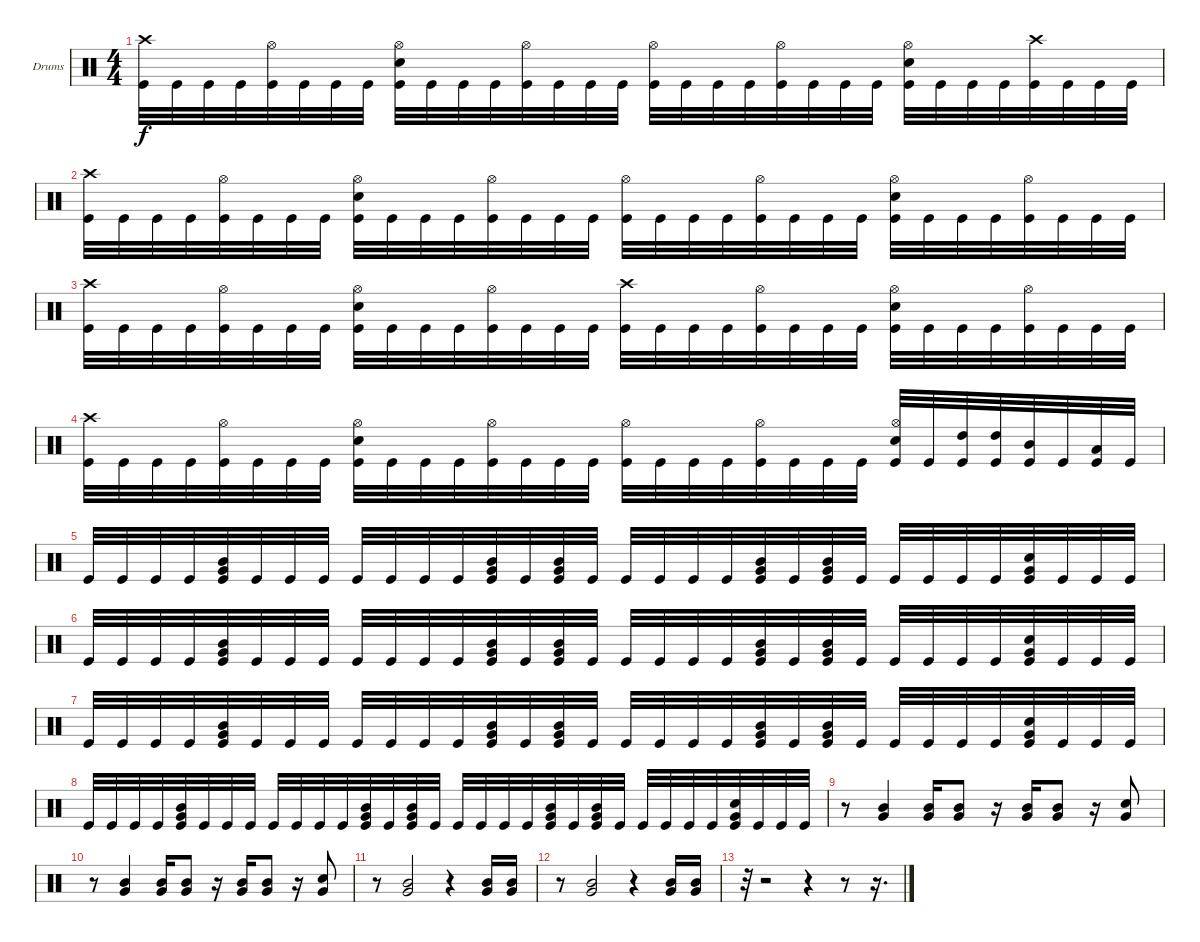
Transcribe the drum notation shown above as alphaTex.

\bracketExtendMode groupsimilarinstruments
\firstSystemTrackNameOrientation horizontal
\otherSystemsTrackNameOrientation horizontal
\track ("Drumkit" "Drums") {instrument percussion}
\staff {score}
\articulation defaults
\ts (4 4)
\tempo (80 hide)
\clef neutral
\ks c
("Crash high (hit)" "Kick (hit)").32{dy f} "Kick (hit)".32 "Kick (hit)".32 "Kick (hit)".32 ("Hi-Hat (open)" "Kick (hit)").32 "Kick (hit)".32 "Kick (hit)".32 "Kick (hit)".32 ("Hi-Hat (open)" "Snare (hit) 2" "Kick (hit)").32 "Kick (hit)".32 "Kick (hit)".32 "Kick (hit)".32 ("Hi-Hat (open)" "Kick (hit)").32 "Kick (hit)".32 "Kick (hit)".32 "Kick (hit)".32 ("Hi-Hat (open)" "Kick (hit)").32 "Kick (hit)".32 "Kick (hit)".32 "Kick (hit)".32 ("Hi-Hat (open)" "Kick (hit)").32 "Kick (hit)".32 "Kick (hit)".32 "Kick (hit)".32 ("Hi-Hat (open)" "Snare (hit) 2" "Kick (hit)").32 "Kick (hit)".32 "Kick (hit)".32 "Kick (hit)".32 ("Crash high (hit)" "Kick (hit)").32 "Kick (hit)".32 "Kick (hit)".32 "Kick (hit)".32 |
("Crash high (hit)" "Kick (hit)").32 "Kick (hit)".32 "Kick (hit)".32 "Kick (hit)".32 ("Hi-Hat (open)" "Kick (hit)").32 "Kick (hit)".32 "Kick (hit)".32 "Kick (hit)".32 ("Hi-Hat (open)" "Snare (hit) 2" "Kick (hit)").32 "Kick (hit)".32 "Kick (hit)".32 "Kick (hit)".32 ("Hi-Hat (open)" "Kick (hit)").32 "Kick (hit)".32 "Kick (hit)".32 "Kick (hit)".32 ("Hi-Hat (open)" "Kick (hit)").32 "Kick (hit)".32 "Kick (hit)".32 "Kick (hit)".32 ("Hi-Hat (open)" "Kick (hit)").32 "Kick (hit)".32 "Kick (hit)".32 "Kick (hit)".32 ("Hi-Hat (open)" "Snare (hit) 2" "Kick (hit)").32 "Kick (hit)".32 "Kick (hit)".32 "Kick (hit)".32 ("Hi-Hat (open)" "Kick (hit)").32 "Kick (hit)".32 "Kick (hit)".32 "Kick (hit)".32 |
("Crash high (hit)" "Kick (hit)").32 "Kick (hit)".32 "Kick (hit)".32 "Kick (hit)".32 ("Hi-Hat (open)" "Kick (hit)").32 "Kick (hit)".32 "Kick (hit)".32 "Kick (hit)".32 ("Hi-Hat (open)" "Snare (hit) 2" "Kick (hit)").32 "Kick (hit)".32 "Kick (hit)".32 "Kick (hit)".32 ("Hi-Hat (open)" "Kick (hit)").32 "Kick (hit)".32 "Kick (hit)".32 "Kick (hit)".32 ("Crash high (hit)" "Kick (hit)").32 "Kick (hit)".32 "Kick (hit)".32 "Kick (hit)".32 ("Hi-Hat (open)" "Kick (hit)").32 "Kick (hit)".32 "Kick (hit)".32 "Kick (hit)".32 ("Hi-Hat (open)" "Snare (hit) 2" "Kick (hit)").32 "Kick (hit)".32 "Kick (hit)".32 "Kick (hit)".32 ("Hi-Hat (open)" "Kick (hit)").32 "Kick (hit)".32 "Kick (hit)".32 "Kick (hit)".32 |
("Crash high (hit)" "Kick (hit)").32 "Kick (hit)".32 "Kick (hit)".32 "Kick (hit)".32 ("Hi-Hat (open)" "Kick (hit)").32 "Kick (hit)".32 "Kick (hit)".32 "Kick (hit)".32 ("Hi-Hat (open)" "Snare (hit) 2" "Kick (hit)").32 "Kick (hit)".32 "Kick (hit)".32 "Kick (hit)".32 ("Hi-Hat (open)" "Kick (hit)").32 "Kick (hit)".32 "Kick (hit)".32 "Kick (hit)".32 ("Hi-Hat (open)" "Kick (hit)").32 "Kick (hit)".32 "Kick (hit)".32 "Kick (hit)".32 ("Hi-Hat (open)" "Kick (hit)").32 "Kick (hit)".32 "Kick (hit)".32 "Kick (hit)".32 ("Hi-Hat (open)" "Snare (hit) 2" "Kick (hit)").32 "Kick (hit)".32 ("High Tom (hit)" "Kick (hit)").32 ("High Tom (hit)" "Kick (hit)").32 ("Mid Tom (hit)" "Kick (hit)").32 "Kick (hit)".32 ("Low Tom (hit)" "Kick (hit)").32 "Kick (hit)".32 |
"Kick (hit)".32 "Kick (hit)".32 "Kick (hit)".32 "Kick (hit)".32 ("Mid Tom (hit)" "Very Low Tom (hit)" "Kick (hit)").32 "Kick (hit)".32 "Kick (hit)".32 "Kick (hit)".32 "Kick (hit)".32 "Kick (hit)".32 "Kick (hit)".32 "Kick (hit)".32 ("Mid Tom (hit)" "Very Low Tom (hit)" "Kick (hit)").32 "Kick (hit)".32 ("Very Low Tom (hit)" "Mid Tom (hit)" "Kick (hit)").32 "Kick (hit)".32 "Kick (hit)".32 "Kick (hit)".32 "Kick (hit)".32 "Kick (hit)".32 ("Very Low Tom (hit)" "Mid Tom (hit)" "Kick (hit)").32 "Kick (hit)".32 ("Very Low Tom (hit)" "Mid Tom (hit)" "Kick (hit)").32 "Kick (hit)".32 "Kick (hit)".32 "Kick (hit)".32 "Kick (hit)".32 "Kick (hit)".32 ("Snare (hit) 2" "Very Low Tom (hit)" "Kick (hit)").32 "Kick (hit)".32 "Kick (hit)".32 "Kick (hit)".32 |
"Kick (hit)".32 "Kick (hit)".32 "Kick (hit)".32 "Kick (hit)".32 ("Mid Tom (hit)" "Very Low Tom (hit)" "Kick (hit)").32 "Kick (hit)".32 "Kick (hit)".32 "Kick (hit)".32 "Kick (hit)".32 "Kick (hit)".32 "Kick (hit)".32 "Kick (hit)".32 ("Mid Tom (hit)" "Very Low Tom (hit)" "Kick (hit)").32 "Kick (hit)".32 ("Very Low Tom (hit)" "Mid Tom (hit)" "Kick (hit)").32 "Kick (hit)".32 "Kick (hit)".32 "Kick (hit)".32 "Kick (hit)".32 "Kick (hit)".32 ("Very Low Tom (hit)" "Mid Tom (hit)" "Kick (hit)").32 "Kick (hit)".32 ("Very Low Tom (hit)" "Mid Tom (hit)" "Kick (hit)").32 "Kick (hit)".32 "Kick (hit)".32 "Kick (hit)".32 "Kick (hit)".32 "Kick (hit)".32 ("Snare (hit) 2" "Very Low Tom (hit)" "Kick (hit)").32 "Kick (hit)".32 "Kick (hit)".32 "Kick (hit)".32 |
"Kick (hit)".32 "Kick (hit)".32 "Kick (hit)".32 "Kick (hit)".32 ("Mid Tom (hit)" "Very Low Tom (hit)" "Kick (hit)").32 "Kick (hit)".32 "Kick (hit)".32 "Kick (hit)".32 "Kick (hit)".32 "Kick (hit)".32 "Kick (hit)".32 "Kick (hit)".32 ("Mid Tom (hit)" "Very Low Tom (hit)" "Kick (hit)").32 "Kick (hit)".32 ("Very Low Tom (hit)" "Mid Tom (hit)" "Kick (hit)").32 "Kick (hit)".32 "Kick (hit)".32 "Kick (hit)".32 "Kick (hit)".32 "Kick (hit)".32 ("Very Low Tom (hit)" "Mid Tom (hit)" "Kick (hit)").32 "Kick (hit)".32 ("Very Low Tom (hit)" "Mid Tom (hit)" "Kick (hit)").32 "Kick (hit)".32 "Kick (hit)".32 "Kick (hit)".32 "Kick (hit)".32 "Kick (hit)".32 ("Snare (hit) 2" "Very Low Tom (hit)" "Kick (hit)").32 "Kick (hit)".32 "Kick (hit)".32 "Kick (hit)".32 |
"Kick (hit)".32 "Kick (hit)".32 "Kick (hit)".32 "Kick (hit)".32 ("Mid Tom (hit)" "Very Low Tom (hit)" "Kick (hit)").32 "Kick (hit)".32 "Kick (hit)".32 "Kick (hit)".32 "Kick (hit)".32 "Kick (hit)".32 "Kick (hit)".32 "Kick (hit)".32 ("Mid Tom (hit)" "Very Low Tom (hit)" "Kick (hit)").32 "Kick (hit)".32 ("Very Low Tom (hit)" "Mid Tom (hit)" "Kick (hit)").32 "Kick (hit)".32 "Kick (hit)".32 "Kick (hit)".32 "Kick (hit)".32 "Kick (hit)".32 ("Very Low Tom (hit)" "Mid Tom (hit)" "Kick (hit)").32 "Kick (hit)".32 ("Very Low Tom (hit)" "Mid Tom (hit)" "Kick (hit)").32 "Kick (hit)".32 "Kick (hit)".32 "Kick (hit)".32 "Kick (hit)".32 "Kick (hit)".32 ("Snare (hit) 2" "Very Low Tom (hit)" "Kick (hit)").32 "Kick (hit)".32 "Kick (hit)".32 "Kick (hit)".32 |
r.8 ("Mid Tom (hit)" "Very Low Tom (hit)").4 ("Mid Tom (hit)" "Very Low Tom (hit)").16 ("Mid Tom (hit)" "Very Low Tom (hit)").8 r.16 ("Very Low Tom (hit)" "Mid Tom (hit)").16 ("Very Low Tom (hit)" "Mid Tom (hit)").8 r.16 ("Snare (hit) 2" "Very Low Tom (hit)").8 |
r.8 ("Mid Tom (hit)" "Very Low Tom (hit)").4 ("Mid Tom (hit)" "Very Low Tom (hit)").16 ("Mid Tom (hit)" "Very Low Tom (hit)").8 r.16 ("Very Low Tom (hit)" "Mid Tom (hit)").16 ("Very Low Tom (hit)" "Mid Tom (hit)").8 r.16 ("Snare (hit) 2" "Very Low Tom (hit)").8 |
r.8 ("Mid Tom (hit)" "Very Low Tom (hit)").2 r.4 ("Mid Tom (hit)" "Very Low Tom (hit)").16 ("Mid Tom (hit)" "Very Low Tom (hit)").16 |
r.8 ("Mid Tom (hit)" "Very Low Tom (hit)").2 r.4 ("Mid Tom (hit)" "Very Low Tom (hit)").16 ("Mid Tom (hit)" "Very Low Tom (hit)").16 |
r.32 r.2 r.4 r.8 r.16{d}
